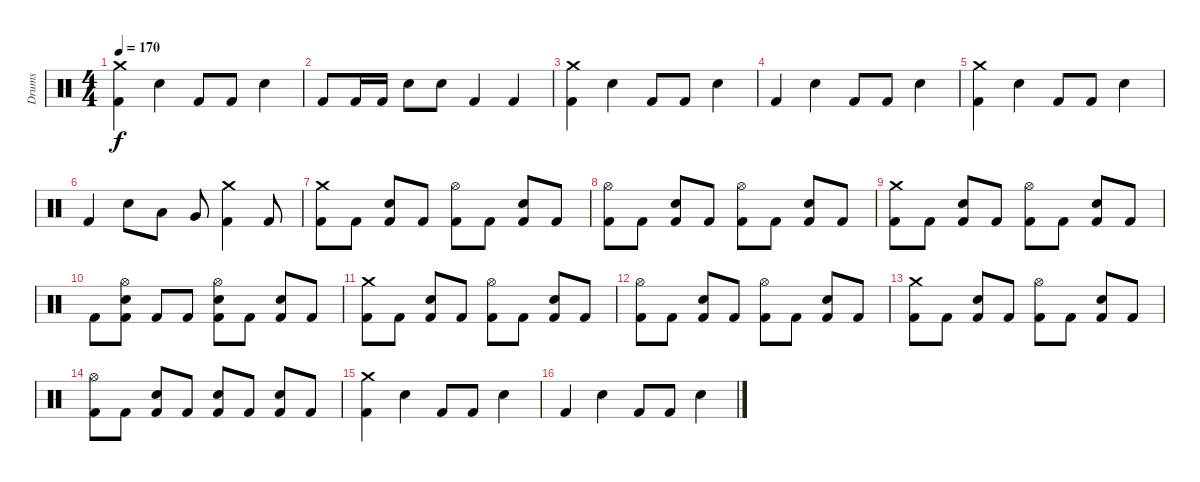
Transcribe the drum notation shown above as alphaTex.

\track ("Drums" "Drums") {instrument percussion}
\staff {score}
\articulation defaults
\ts (4 4)
\tempo 170
\clef neutral
\ks c
("Crash medium (hit)" "Kick (hit) 2").4{dy f} "Snare (hit) 2".4 "Kick (hit) 2".8 "Kick (hit) 2".8 "Snare (hit) 2".4 |
"Kick (hit) 2".8 "Kick (hit) 2".16 "Kick (hit) 2".16 "Snare (hit) 2".8 "Snare (hit) 2".8 "Kick (hit) 2".4 "Kick (hit) 2".4 |
("Crash medium (hit)" "Kick (hit) 2").4 "Snare (hit) 2".4 "Kick (hit) 2".8 "Kick (hit) 2".8 "Snare (hit) 2".4 |
"Kick (hit) 2".4 "Snare (hit) 2".4 "Kick (hit) 2".8 "Kick (hit) 2".8 "Snare (hit) 2".4 |
("Crash medium (hit)" "Kick (hit) 2").4 "Snare (hit) 2".4 "Kick (hit) 2".8 "Kick (hit) 2".8 "Snare (hit) 2".4 |
"Kick (hit) 2".4 "Snare (hit) 2".8 "Low Tom (hit)".8 "Very Low Tom (hit)".8 ("Crash medium (hit)" "Kick (hit) 2").4 "Kick (hit) 2".8 |
("Crash medium (hit)" "Kick (hit) 2").8 "Kick (hit) 2".8 ("Snare (hit) 2" "Kick (hit) 2").8 "Kick (hit) 2".8 ("Hi-Hat (open)" "Kick (hit) 2").8 "Kick (hit) 2".8 ("Snare (hit) 2" "Kick (hit) 2").8 "Kick (hit) 2".8 |
("Hi-Hat (open)" "Kick (hit) 2").8 "Kick (hit) 2".8 ("Snare (hit) 2" "Kick (hit) 2").8 "Kick (hit) 2".8 ("Hi-Hat (open)" "Kick (hit) 2").8 "Kick (hit) 2".8 ("Snare (hit) 2" "Kick (hit) 2").8 "Kick (hit) 2".8 |
("Crash medium (hit)" "Kick (hit) 2").8 "Kick (hit) 2".8 ("Snare (hit) 2" "Kick (hit) 2").8 "Kick (hit) 2".8 ("Hi-Hat (open)" "Kick (hit) 2").8 "Kick (hit) 2".8 ("Snare (hit) 2" "Kick (hit) 2").8 "Kick (hit) 2".8 |
"Kick (hit) 2".8 ("Snare (hit) 2" "Hi-Hat (open)" "Kick (hit) 2").8 "Kick (hit) 2".8 "Kick (hit) 2".8 ("Snare (hit) 2" "Hi-Hat (open)" "Kick (hit) 2").8 "Kick (hit) 2".8 ("Snare (hit) 2" "Kick (hit) 2").8 "Kick (hit) 2".8 |
("Crash medium (hit)" "Kick (hit) 2").8 "Kick (hit) 2".8 ("Snare (hit) 2" "Kick (hit) 2").8 "Kick (hit) 2".8 ("Hi-Hat (open)" "Kick (hit) 2").8 "Kick (hit) 2".8 ("Snare (hit) 2" "Kick (hit) 2").8 "Kick (hit) 2".8 |
("Hi-Hat (open)" "Kick (hit) 2").8 "Kick (hit) 2".8 ("Snare (hit) 2" "Kick (hit) 2").8 "Kick (hit) 2".8 ("Hi-Hat (open)" "Kick (hit) 2").8 "Kick (hit) 2".8 ("Snare (hit) 2" "Kick (hit) 2").8 "Kick (hit) 2".8 |
("Crash medium (hit)" "Kick (hit) 2").8 "Kick (hit) 2".8 ("Snare (hit) 2" "Kick (hit) 2").8 "Kick (hit) 2".8 ("Hi-Hat (open)" "Kick (hit) 2").8 "Kick (hit) 2".8 ("Snare (hit) 2" "Kick (hit) 2").8 "Kick (hit) 2".8 |
("Hi-Hat (open)" "Kick (hit) 2").8 "Kick (hit) 2".8 ("Snare (hit) 2" "Kick (hit) 2").8 "Kick (hit) 2".8 ("Snare (hit) 2" "Kick (hit) 2").8 "Kick (hit) 2".8 ("Snare (hit) 2" "Kick (hit) 2").8 "Kick (hit) 2".8 |
("Crash medium (hit)" "Kick (hit) 2").4 "Snare (hit) 2".4 "Kick (hit) 2".8 "Kick (hit) 2".8 "Snare (hit) 2".4 |
"Kick (hit) 2".4 "Snare (hit) 2".4 "Kick (hit) 2".8 "Kick (hit) 2".8 "Snare (hit) 2".4
